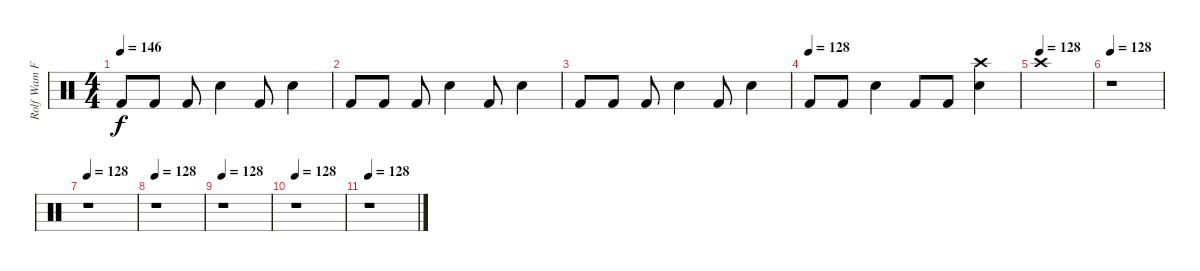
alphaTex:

\track ("Rolf Wam Fjell" "Rolf Wam F") {instrument percussion}
\staff {score}
\articulation defaults
\ts (4 4)
\tempo 146
\clef neutral
\ks c "Kick (hit) 2".8{dy f} "Kick (hit) 2".8 "Kick (hit) 2".8 "Electric Snare (hit)".4 "Kick (hit) 2".8 "Electric Snare (hit)".4
|
"Kick (hit) 2".8 "Kick (hit) 2".8 "Kick (hit) 2".8 "Electric Snare (hit)".4 "Kick (hit) 2".8 "Electric Snare (hit)".4 |
"Kick (hit) 2".8 "Kick (hit) 2".8 "Kick (hit) 2".8 "Electric Snare (hit)".4 "Kick (hit) 2".8 "Electric Snare (hit)".4 |
\tempo (128)
"Kick (hit) 2".8 "Kick (hit) 2".8 "Electric Snare (hit)".4 "Kick (hit) 2".8 "Kick (hit) 2".8 ("Electric Snare (hit)" "Crash high (hit)").4 |
\tempo (128)
"Crash high (hit)".1 |
\tempo 128
r.1 |
\tempo 128
r.1 |
\tempo 128
r.1 |
\tempo 128
r.1 |
\tempo 128
r.1 |
\tempo 128
r.1
